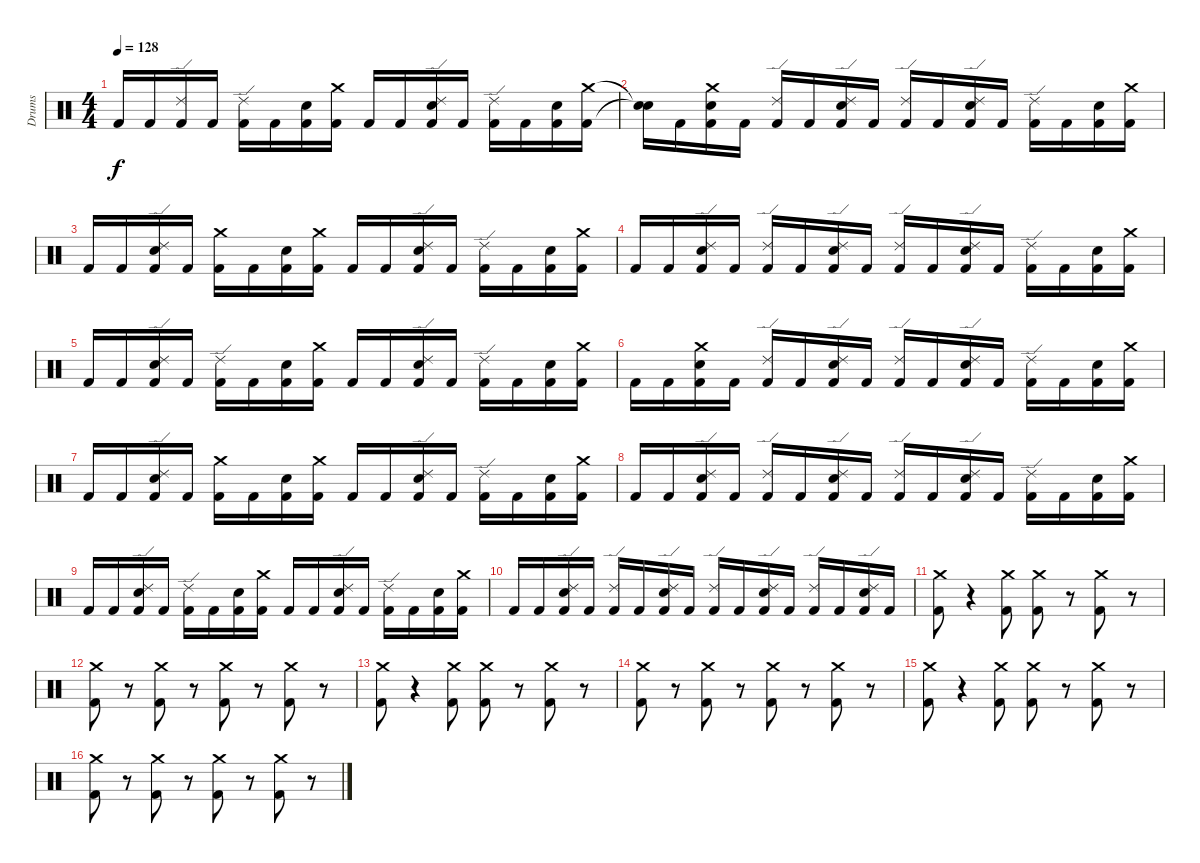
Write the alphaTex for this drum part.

\track ("Drums" "Drums") {instrument percussion}
\staff {score}
\articulation defaults
\ts (4 4)
\tempo 128
\clef neutral
\ks c "Kick (hit) 2".16{dy f} "Kick (hit) 2".16
("Ride (edge) 2" "Kick (hit) 2").16 "Kick (hit) 2".16 ("Ride (edge) 2" "Kick (hit) 2").16 "Kick (hit) 2".16 ("Snare (hit) 2" "Kick (hit) 2").16 ("Crash medium (hit)" "Kick (hit) 2").16 "Kick (hit) 2".16 "Kick (hit) 2".16 ("Ride (edge) 2" "Snare (hit) 2" "Kick (hit) 2").16 "Kick (hit) 2".16 ("Ride (edge) 2" "Kick (hit) 2").16 "Kick (hit) 2".16 ("Snare (hit) 2" "Kick (hit) 2").16 ("Crash medium (hit)" "Kick (hit) 2").16 |
("Snare (hit)"{t} "Snare (hit)"{t}).16 "Kick (hit) 2".16 ("Crash medium (hit)" "Snare (hit) 2" "Kick (hit) 2").16 "Kick (hit) 2".16 ("Ride (edge) 2" "Kick (hit) 2").16 "Kick (hit) 2".16 ("Ride (edge) 2" "Snare (hit) 2" "Kick (hit) 2").16 "Kick (hit) 2".16 ("Ride (edge) 2" "Kick (hit) 2").16 "Kick (hit) 2".16 ("Ride (edge) 2" "Snare (hit) 2" "Kick (hit) 2").16 "Kick (hit) 2".16 ("Ride (edge) 2" "Kick (hit) 2").16 "Kick (hit) 2".16 ("Snare (hit) 2" "Kick (hit) 2").16 ("Crash medium (hit)" "Kick (hit) 2").16 |
"Kick (hit) 2".16 "Kick (hit) 2".16 ("Ride (edge) 2" "Snare (hit) 2" "Kick (hit) 2").16 "Kick (hit) 2".16 ("Crash medium (hit)" "Kick (hit) 2").16 "Kick (hit) 2".16 ("Snare (hit) 2" "Kick (hit) 2").16 ("Crash medium (hit)" "Kick (hit) 2").16 "Kick (hit) 2".16 "Kick (hit) 2".16 ("Ride (edge) 2" "Snare (hit) 2" "Kick (hit) 2").16 "Kick (hit) 2".16 ("Ride (edge) 2" "Kick (hit) 2").16 "Kick (hit) 2".16 ("Snare (hit) 2" "Kick (hit) 2").16 ("Crash medium (hit)" "Kick (hit) 2").16 |
"Kick (hit) 2".16 "Kick (hit) 2".16 ("Ride (edge) 2" "Snare (hit) 2" "Kick (hit) 2").16 "Kick (hit) 2".16 ("Ride (edge) 2" "Kick (hit) 2").16 "Kick (hit) 2".16 ("Ride (edge) 2" "Snare (hit) 2" "Kick (hit) 2").16 "Kick (hit) 2".16 ("Ride (edge) 2" "Kick (hit) 2").16 "Kick (hit) 2".16 ("Ride (edge) 2" "Snare (hit) 2" "Kick (hit) 2").16 "Kick (hit) 2".16 ("Ride (edge) 2" "Kick (hit) 2").16 "Kick (hit) 2".16 ("Snare (hit) 2" "Kick (hit) 2").16 ("Crash medium (hit)" "Kick (hit) 2").16 |
"Kick (hit) 2".16 "Kick (hit) 2".16 ("Ride (edge) 2" "Snare (hit) 2" "Kick (hit) 2").16 "Kick (hit) 2".16 ("Ride (edge) 2" "Kick (hit) 2").16 "Kick (hit) 2".16 ("Snare (hit) 2" "Kick (hit) 2").16 ("Crash medium (hit)" "Kick (hit) 2").16 "Kick (hit) 2".16 "Kick (hit) 2".16 ("Ride (edge) 2" "Snare (hit) 2" "Kick (hit) 2").16 "Kick (hit) 2".16 ("Ride (edge) 2" "Kick (hit) 2").16 "Kick (hit) 2".16 ("Snare (hit) 2" "Kick (hit) 2").16 ("Crash medium (hit)" "Kick (hit) 2").16 |
"Kick (hit) 2".16 "Kick (hit) 2".16 ("Crash medium (hit)" "Snare (hit) 2" "Kick (hit) 2").16 "Kick (hit) 2".16 ("Ride (edge) 2" "Kick (hit) 2").16 "Kick (hit) 2".16 ("Ride (edge) 2" "Snare (hit) 2" "Kick (hit) 2").16 "Kick (hit) 2".16 ("Ride (edge) 2" "Kick (hit) 2").16 "Kick (hit) 2".16 ("Ride (edge) 2" "Snare (hit) 2" "Kick (hit) 2").16 "Kick (hit) 2".16 ("Ride (edge) 2" "Kick (hit) 2").16 "Kick (hit) 2".16 ("Snare (hit) 2" "Kick (hit) 2").16 ("Crash medium (hit)" "Kick (hit) 2").16 |
"Kick (hit) 2".16 "Kick (hit) 2".16 ("Ride (edge) 2" "Snare (hit) 2" "Kick (hit) 2").16 "Kick (hit) 2".16 ("Crash medium (hit)" "Kick (hit) 2").16 "Kick (hit) 2".16 ("Snare (hit) 2" "Kick (hit) 2").16 ("Crash medium (hit)" "Kick (hit) 2").16 "Kick (hit) 2".16 "Kick (hit) 2".16 ("Ride (edge) 2" "Snare (hit) 2" "Kick (hit) 2").16 "Kick (hit) 2".16 ("Ride (edge) 2" "Kick (hit) 2").16 "Kick (hit) 2".16 ("Snare (hit) 2" "Kick (hit) 2").16 ("Crash medium (hit)" "Kick (hit) 2").16 |
"Kick (hit) 2".16 "Kick (hit) 2".16 ("Ride (edge) 2" "Snare (hit) 2" "Kick (hit) 2").16 "Kick (hit) 2".16 ("Ride (edge) 2" "Kick (hit) 2").16 "Kick (hit) 2".16 ("Ride (edge) 2" "Snare (hit) 2" "Kick (hit) 2").16 "Kick (hit) 2".16 ("Ride (edge) 2" "Kick (hit) 2").16 "Kick (hit) 2".16 ("Ride (edge) 2" "Snare (hit) 2" "Kick (hit) 2").16 "Kick (hit) 2".16 ("Ride (edge) 2" "Kick (hit) 2").16 "Kick (hit) 2".16 ("Snare (hit) 2" "Kick (hit) 2").16 ("Crash medium (hit)" "Kick (hit) 2").16 |
"Kick (hit) 2".16 "Kick (hit) 2".16 ("Ride (edge) 2" "Snare (hit) 2" "Kick (hit) 2").16 "Kick (hit) 2".16 ("Ride (edge) 2" "Kick (hit) 2").16 "Kick (hit) 2".16 ("Snare (hit) 2" "Kick (hit) 2").16 ("Crash medium (hit)" "Kick (hit) 2").16 "Kick (hit) 2".16 "Kick (hit) 2".16 ("Ride (edge) 2" "Snare (hit) 2" "Kick (hit) 2").16 "Kick (hit) 2".16 ("Ride (edge) 2" "Kick (hit) 2").16 "Kick (hit) 2".16 ("Snare (hit) 2" "Kick (hit) 2").16 ("Crash medium (hit)" "Kick (hit) 2").16 |
"Kick (hit) 2".16 "Kick (hit) 2".16 ("Ride (edge) 2" "Snare (hit) 2" "Kick (hit) 2").16 "Kick (hit) 2".16 ("Ride (edge) 2" "Kick (hit) 2").16 "Kick (hit) 2".16 ("Ride (edge) 2" "Snare (hit) 2" "Kick (hit) 2").16 "Kick (hit) 2".16 ("Ride (edge) 2" "Kick (hit) 2").16 "Kick (hit) 2".16 ("Ride (edge) 2" "Snare (hit) 2" "Kick (hit) 2").16 "Kick (hit) 2".16 ("Ride (edge) 2" "Kick (hit) 2").16 "Kick (hit) 2".16 ("Ride (edge) 2" "Snare (hit) 2" "Kick (hit) 2").16 "Kick (hit) 2".16 |
("Crash medium (hit)" "Kick (hit) 2").8 r.4 ("Crash medium (hit)" "Kick (hit) 2").8 ("Crash medium (hit)" "Kick (hit) 2").8 r.8 ("Crash medium (hit)" "Kick (hit) 2").8 r.8 |
("Crash medium (hit)" "Kick (hit) 2").8 r.8 ("Crash medium (hit)" "Kick (hit) 2").8 r.8 ("Crash medium (hit)" "Kick (hit) 2").8 r.8 ("Crash medium (hit)" "Kick (hit) 2").8 r.8 |
("Crash medium (hit)" "Kick (hit) 2").8 r.4 ("Crash medium (hit)" "Kick (hit) 2").8 ("Crash medium (hit)" "Kick (hit) 2").8 r.8 ("Crash medium (hit)" "Kick (hit) 2").8 r.8 |
("Crash medium (hit)" "Kick (hit) 2").8 r.8 ("Crash medium (hit)" "Kick (hit) 2").8 r.8 ("Crash medium (hit)" "Kick (hit) 2").8 r.8 ("Crash medium (hit)" "Kick (hit) 2").8 r.8 |
("Crash medium (hit)" "Kick (hit) 2").8 r.4 ("Crash medium (hit)" "Kick (hit) 2").8 ("Crash medium (hit)" "Kick (hit) 2").8 r.8 ("Crash medium (hit)" "Kick (hit) 2").8 r.8 |
("Crash medium (hit)" "Kick (hit) 2").8 r.8 ("Crash medium (hit)" "Kick (hit) 2").8 r.8 ("Crash medium (hit)" "Kick (hit) 2").8 r.8 ("Crash medium (hit)" "Kick (hit) 2").8 r.8
